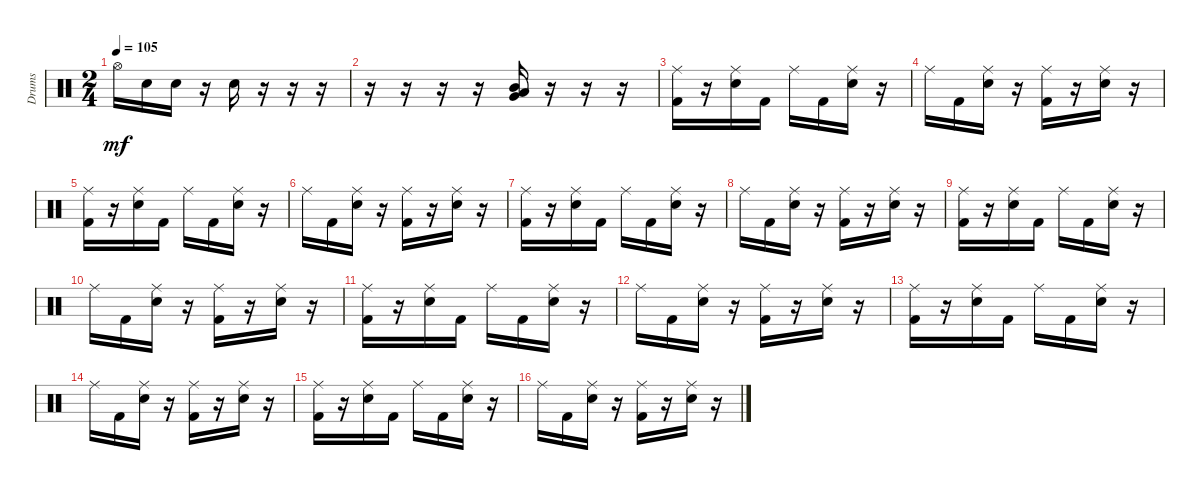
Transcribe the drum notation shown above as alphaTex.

\defaultSystemsLayout 4
\bracketExtendMode groupsimilarinstruments
\otherSystemsTrackNameOrientation horizontal
\track ("Godd" "Drums") {instrument percussion}
\staff {score}
\articulation defaults
\ts (2 4)
\tempo 105
\clef neutral
\ks c "Hi-Hat (open)"{t}.16{dy mf} "Snare (hit) 2".16 "Snare (hit) 2".16
r.16 "Snare (hit) 2".16 r.16 r.16 r.16 |
r.16 r.16 r.16 r.16 ("Very Low Tom (hit)" "Low Tom (hit)" "Mid Tom (hit)").16 r.16 r.16 r.16 |
("Kick (hit) 2" "Ride (middle)").16 r.16 ("Snare (hit) 2" "Ride (middle)").16 "Kick (hit) 2".16 "Ride (middle)".16 "Kick (hit) 2".16 ("Snare (hit) 2" "Ride (middle)").16 r.16 |
"Ride (middle)".16 "Kick (hit) 2".16 ("Snare (hit) 2" "Ride (middle)").16 r.16 ("Kick (hit) 2" "Ride (middle)").16 r.16 ("Snare (hit) 2" "Ride (middle)").16 r.16 |
("Kick (hit) 2" "Ride (middle)").16 r.16 ("Snare (hit) 2" "Ride (middle)").16 "Kick (hit) 2".16 "Ride (middle)".16 "Kick (hit) 2".16 ("Snare (hit) 2" "Ride (middle)").16 r.16 |
"Ride (middle)".16 "Kick (hit) 2".16 ("Snare (hit) 2" "Ride (middle)").16 r.16 ("Kick (hit) 2" "Ride (middle)").16 r.16 ("Snare (hit) 2" "Ride (middle)").16 r.16 |
("Kick (hit) 2" "Ride (middle)").16 r.16 ("Snare (hit) 2" "Ride (middle)").16 "Kick (hit) 2".16 "Ride (middle)".16 "Kick (hit) 2".16 ("Snare (hit) 2" "Ride (middle)").16 r.16 |
"Ride (middle)".16 "Kick (hit) 2".16 ("Snare (hit) 2" "Ride (middle)").16 r.16 ("Kick (hit) 2" "Ride (middle)").16 r.16 ("Snare (hit) 2" "Ride (middle)").16 r.16 |
("Kick (hit) 2" "Ride (middle)").16 r.16 ("Snare (hit) 2" "Ride (middle)").16 "Kick (hit) 2".16 "Ride (middle)".16 "Kick (hit) 2".16 ("Snare (hit) 2" "Ride (middle)").16 r.16 |
"Ride (middle)".16 "Kick (hit) 2".16 ("Snare (hit) 2" "Ride (middle)").16 r.16 ("Kick (hit) 2" "Ride (middle)").16 r.16 ("Snare (hit) 2" "Ride (middle)").16 r.16 |
("Kick (hit) 2" "Ride (middle)").16 r.16 ("Snare (hit) 2" "Ride (middle)").16 "Kick (hit) 2".16 "Ride (middle)".16 "Kick (hit) 2".16 ("Snare (hit) 2" "Ride (middle)").16 r.16 |
"Ride (middle)".16 "Kick (hit) 2".16 ("Snare (hit) 2" "Ride (middle)").16 r.16 ("Kick (hit) 2" "Ride (middle)").16 r.16 ("Snare (hit) 2" "Ride (middle)").16 r.16 |
("Kick (hit) 2" "Ride (middle)").16 r.16 ("Snare (hit) 2" "Ride (middle)").16 "Kick (hit) 2".16 "Ride (middle)".16 "Kick (hit) 2".16 ("Snare (hit) 2" "Ride (middle)").16 r.16 |
"Ride (middle)".16 "Kick (hit) 2".16 ("Snare (hit) 2" "Ride (middle)").16 r.16 ("Kick (hit) 2" "Ride (middle)").16 r.16 ("Snare (hit) 2" "Ride (middle)").16 r.16 |
("Kick (hit) 2" "Ride (middle)").16 r.16 ("Snare (hit) 2" "Ride (middle)").16 "Kick (hit) 2".16 "Ride (middle)".16 "Kick (hit) 2".16 ("Snare (hit) 2" "Ride (middle)").16 r.16 |
"Ride (middle)".16 "Kick (hit) 2".16 ("Snare (hit) 2" "Ride (middle)").16 r.16 ("Kick (hit) 2" "Ride (middle)").16 r.16 ("Snare (hit) 2" "Ride (middle)").16 r.16
